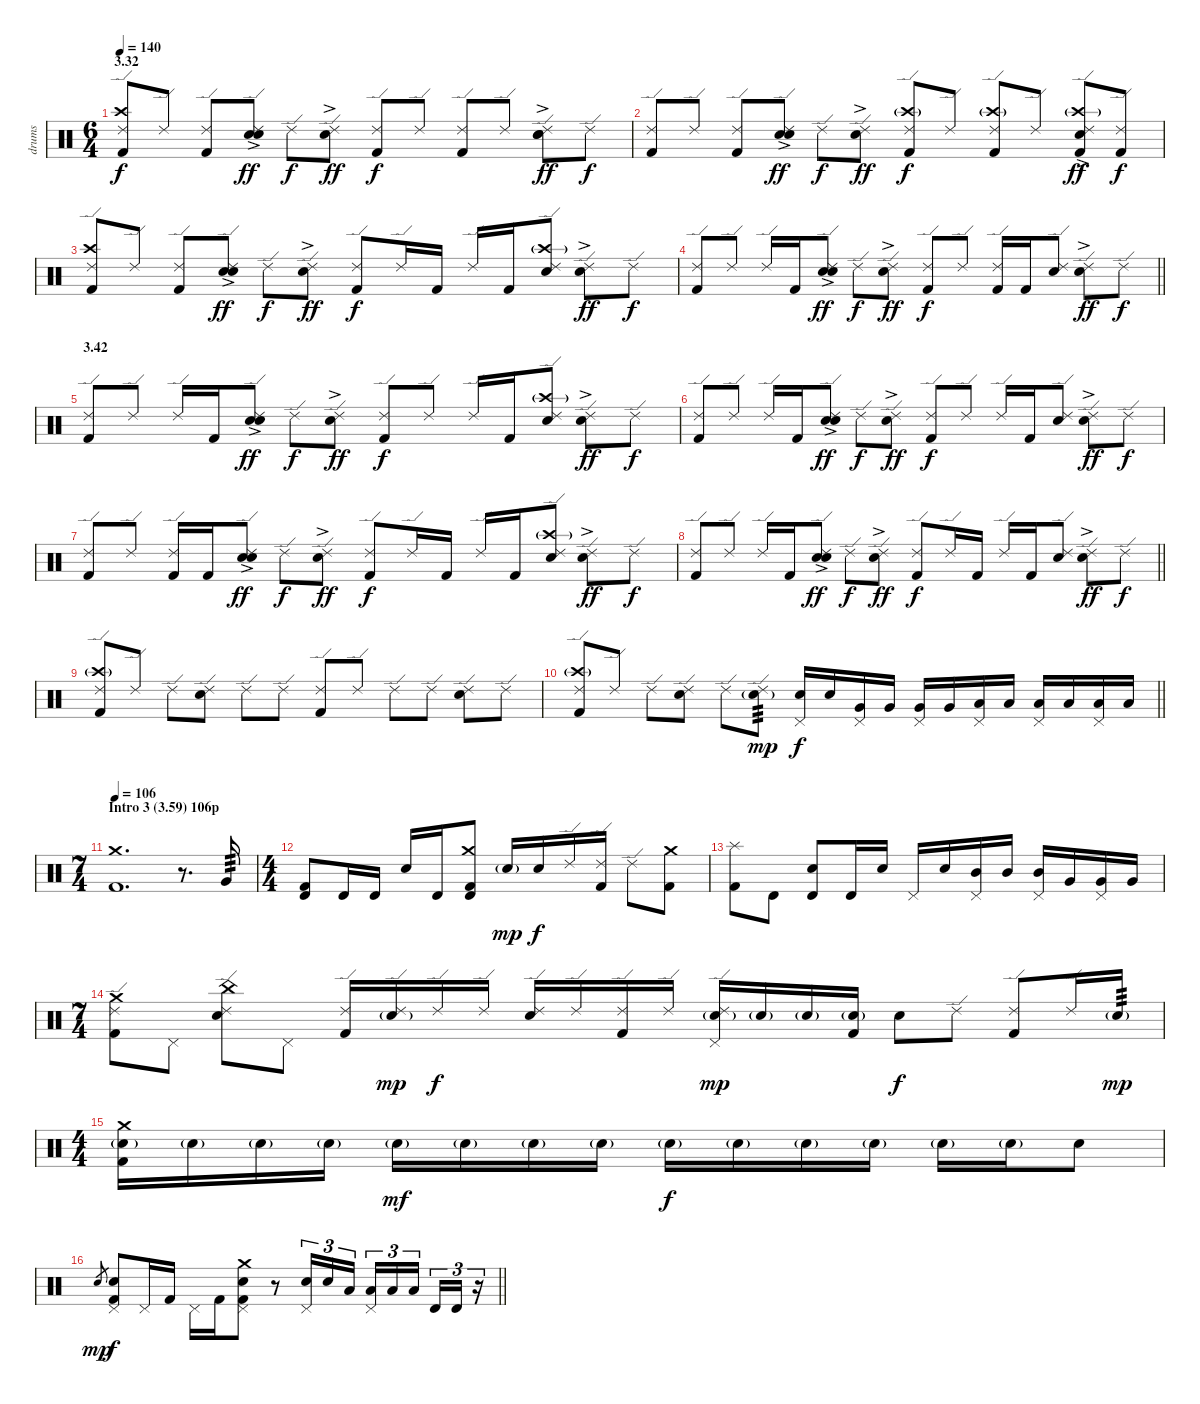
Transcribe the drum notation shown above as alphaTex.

\track ("drums" "drums") {instrument percussion}
\staff {score}
\articulation defaults
\ts (6 4)
\section ("" "3.32")
\tempo 140
\clef neutral
\ks c
("Ride (edge) 2" "Crash high (hit)" "Kick (hit) 2").8{dy f} "Ride (edge) 2".8 ("Ride (edge) 2" "Kick (hit) 2").8 ("Ride (edge) 2" "Hand Clap (hit)"{ac} "Electric Snare (hit)").8{dy ff} "Ride (edge) 2".8{dy f} ("Ride (edge) 2" "Hand Clap (hit)"{ac}).8{dy ff} ("Ride (edge) 2" "Kick (hit) 2").8{dy f} "Ride (edge) 2".8 ("Ride (edge) 2" "Kick (hit) 2").8 "Ride (edge) 2".8 ("Ride (edge) 2" "Hand Clap (hit)"{ac} "Electric Snare (hit)").8{dy ff} "Ride (edge) 2".8{dy f} |
("Ride (edge) 2" "Kick (hit) 2").8 "Ride (edge) 2".8 ("Ride (edge) 2" "Kick (hit) 2").8 ("Ride (edge) 2" "Hand Clap (hit)"{ac} "Electric Snare (hit)").8{dy ff} "Ride (edge) 2".8{dy f} ("Ride (edge) 2" "Hand Clap (hit)"{ac}).8{dy ff} ("Ride (edge) 2" "Crash high (hit)"{g} "Kick (hit) 2").8{dy f} "Ride (edge) 2".8 ("Ride (edge) 2" "Crash high (hit)"{g} "Kick (hit) 2").8 "Ride (edge) 2".8 ("Ride (edge) 2" "Hand Clap (hit)"{ac} "Crash high (hit)"{g} "Kick (hit) 2").8{dy ff} ("Ride (edge) 2" "Kick (hit) 2").8{dy f} |
("Ride (edge) 2" "Crash high (hit)" "Kick (hit) 2").8 "Ride (edge) 2".8 ("Ride (edge) 2" "Kick (hit) 2").8 ("Ride (edge) 2" "Hand Clap (hit)"{ac} "Electric Snare (hit)").8{dy ff} "Ride (edge) 2".8{dy f} ("Ride (edge) 2" "Hand Clap (hit)"{ac}).8{dy ff} ("Ride (edge) 2" "Kick (hit) 2").8{dy f} "Ride (edge) 2".16 "Kick (hit) 2".16 "Ride (edge) 2".16 "Kick (hit) 2".16 ("Ride (edge) 2" "Crash high (hit)"{g} "Electric Snare (hit)").8 ("Ride (edge) 2" "Hand Clap (hit)"{ac}).8{dy ff} "Ride (edge) 2".8{dy f} |
\barLineRight lightlight
("Ride (edge) 2" "Kick (hit) 2").8 "Ride (edge) 2".8 "Ride (edge) 2".16 "Kick (hit) 2".16 ("Ride (edge) 2" "Hand Clap (hit)"{ac} "Electric Snare (hit)").8{dy ff} "Ride (edge) 2".8{dy f} ("Ride (edge) 2" "Hand Clap (hit)"{ac}).8{dy ff} ("Ride (edge) 2" "Kick (hit) 2").8{dy f} "Ride (edge) 2".8 ("Ride (edge) 2" "Kick (hit) 2").16 "Kick (hit) 2".16 ("Ride (edge) 2" "Electric Snare (hit)").8 ("Ride (edge) 2" "Hand Clap (hit)"{ac}).8{dy ff} "Ride (edge) 2".8{dy f} |
\section ("" "3.42")
("Ride (edge) 2" "Kick (hit) 2").8 "Ride (edge) 2".8 "Ride (edge) 2".16 "Kick (hit) 2".16 ("Ride (edge) 2" "Hand Clap (hit)"{ac} "Electric Snare (hit)").8{dy ff} "Ride (edge) 2".8{dy f} ("Ride (edge) 2" "Hand Clap (hit)"{ac}).8{dy ff} ("Ride (edge) 2" "Kick (hit) 2").8{dy f} "Ride (edge) 2".8 "Ride (edge) 2".16 "Kick (hit) 2".16 ("Ride (edge) 2" "Crash high (hit)"{g} "Electric Snare (hit)").8 ("Ride (edge) 2" "Hand Clap (hit)"{ac}).8{dy ff} "Ride (edge) 2".8{dy f} |
("Ride (edge) 2" "Kick (hit) 2").8 "Ride (edge) 2".8 "Ride (edge) 2".16 "Kick (hit) 2".16 ("Ride (edge) 2" "Hand Clap (hit)"{ac} "Electric Snare (hit)").8{dy ff} "Ride (edge) 2".8{dy f} ("Ride (edge) 2" "Hand Clap (hit)"{ac}).8{dy ff} ("Ride (edge) 2" "Kick (hit) 2").8{dy f} "Ride (edge) 2".8 "Ride (edge) 2".16 "Kick (hit) 2".16 ("Ride (edge) 2" "Electric Snare (hit)").8 ("Ride (edge) 2" "Hand Clap (hit)"{ac}).8{dy ff} "Ride (edge) 2".8{dy f} |
("Ride (edge) 2" "Kick (hit) 2").8 "Ride (edge) 2".8 ("Ride (edge) 2" "Kick (hit) 2").16 "Kick (hit) 2".16 ("Ride (edge) 2" "Hand Clap (hit)"{ac} "Electric Snare (hit)").8{dy ff} "Ride (edge) 2".8{dy f} ("Ride (edge) 2" "Hand Clap (hit)"{ac}).8{dy ff} ("Ride (edge) 2" "Kick (hit) 2").8{dy f} "Ride (edge) 2".16 "Kick (hit) 2".16 "Ride (edge) 2".16 "Kick (hit) 2".16 ("Ride (edge) 2" "Crash high (hit)"{g} "Electric Snare (hit)").8 ("Ride (edge) 2" "Hand Clap (hit)"{ac}).8{dy ff} "Ride (edge) 2".8{dy f} |
\barLineRight lightlight
("Ride (edge) 2" "Kick (hit) 2").8 "Ride (edge) 2".8 "Ride (edge) 2".16 "Kick (hit) 2".16 ("Ride (edge) 2" "Hand Clap (hit)"{ac} "Electric Snare (hit)").8{dy ff} "Ride (edge) 2".8{dy f} ("Ride (edge) 2" "Hand Clap (hit)"{ac}).8{dy ff} ("Ride (edge) 2" "Kick (hit) 2").8{dy f} "Ride (edge) 2".16 "Kick (hit) 2".16 "Ride (edge) 2".16 "Kick (hit) 2".16 ("Ride (edge) 2" "Electric Snare (hit)").8 ("Ride (edge) 2" "Hand Clap (hit)"{ac}).8{dy ff} "Ride (edge) 2".8{dy f} |
("Ride (edge) 2" "Crash high (hit)"{g} "Kick (hit) 2").8 "Ride (edge) 2".8 "Ride (edge) 2".8 ("Ride (edge) 2" "Electric Snare (hit)").8 "Ride (edge) 2".8 "Ride (edge) 2".8 ("Ride (edge) 2" "Kick (hit) 2").8 "Ride (edge) 2".8 "Ride (edge) 2".8 "Ride (edge) 2".8 ("Ride (edge) 2" "Electric Snare (hit)").8 "Ride (edge) 2".8 |
\barLineRight lightlight
("Ride (edge) 2" "Crash high (hit)"{g} "Kick (hit) 2").8 "Ride (edge) 2".8 "Ride (edge) 2".8 ("Ride (edge) 2" "Electric Snare (hit)").8 "Ride (edge) 2".8 ("Ride (edge) 2" "Electric Snare (hit)"{g}).8{tp 3 dy mp} ("Pedal Hi-Hat (hit)" "Electric Snare (hit)").16{dy f} "Electric Snare (hit)".16 ("Pedal Hi-Hat (hit)" "Very Low Tom (hit)").16 "Very Low Tom (hit)".16 ("Pedal Hi-Hat (hit)" "Very Low Tom (hit)").16 "Very Low Tom (hit)".16 ("Pedal Hi-Hat (hit)" "Low Tom (hit)").16 "Low Tom (hit)".16 ("Pedal Hi-Hat (hit)" "Low Tom (hit)").16 "Low Tom (hit)".16 ("Pedal Hi-Hat (hit)" "Low Tom (hit)").16 "Low Tom (hit)".16 |
\ts (7 4)
\section ("" "Intro 3 (3.59) 106p")
\tempo 106
("Crash medium (hit)" "Kick (hit) 2").1{d} r.8{d} "Very Low Tom (hit)".16{tp 3} |
\ts (4 4)
("Timbale high (hit)" "Kick (hit) 2").8 "Timbale high (hit)".16 "Timbale high (hit)".16 "Electric Snare (hit)".16 "Timbale high (hit)".16 ("Timbale high (hit)" "Crash medium (hit)" "Kick (hit) 2").8 "Electric Snare (hit)"{g}.16{dy mp} "Electric Snare (hit)".16{dy f} "Ride (edge) 2".16 ("Ride (edge) 2" "Kick (hit) 2").16 "Ride (edge) 2".8 ("Crash medium (hit)" "Kick (hit) 2").8 |
("Splash (hit)" "Kick (hit) 2").8 "Timbale high (hit)".8 ("Timbale high (hit)" "Electric Snare (hit)").8 "Timbale high (hit)".16 "Electric Snare (hit)".16 "Pedal Hi-Hat (hit)".16 "Electric Snare (hit)".16 ("Pedal Hi-Hat (hit)" "Mid Tom (hit)").16 "Mid Tom (hit)".16 ("Pedal Hi-Hat (hit)" "Mid Tom (hit)").16 "Very Low Tom (hit)".16 ("Pedal Hi-Hat (hit)" "Very Low Tom (hit)").16 "Very Low Tom (hit)".16 |
\ts (7 4)
("Ride (edge) 2" "Crash medium (hit)" "Kick (hit) 2").8 "Pedal Hi-Hat (hit)".8 ("Ride (edge) 2" "China (hit)" "Electric Snare (hit)").8 "Pedal Hi-Hat (hit)".8 ("Ride (edge) 2" "Kick (hit) 2").16 ("Ride (edge) 2" "Electric Snare (hit)"{g}).16{dy mp} "Ride (edge) 2".16{dy f} "Ride (edge) 2".16 ("Ride (edge) 2" "Electric Snare (hit)").16 "Ride (edge) 2".16 ("Ride (edge) 2" "Kick (hit) 2").16 "Ride (edge) 2".16 ("Ride (edge) 2" "Pedal Hi-Hat (hit)" "Electric Snare (hit)"{g}).16{dy mp} "Electric Snare (hit)"{g}.16 "Electric Snare (hit)"{g}.16 ("Electric Snare (hit)"{g} "Kick (hit) 2").16 "Electric Snare (hit)".8{dy f} "Ride (edge) 2".8 ("Ride (edge) 2" "Kick (hit) 2").8 "Ride (edge) 2".16 "Electric Snare (hit)"{g}.16{tp 3 dy mp} |
\ts (4 4)
("Crash medium (hit)" "Electric Snare (hit)"{g} "Kick (hit) 2").16 "Electric Snare (hit)"{g}.16 "Electric Snare (hit)"{g}.16 "Electric Snare (hit)"{g}.16 "Electric Snare (hit)"{g}.16{dy mf} "Electric Snare (hit)"{g}.16 "Electric Snare (hit)"{g}.16 "Electric Snare (hit)"{g}.16 "Electric Snare (hit)"{g}.16{dy f} "Electric Snare (hit)"{g}.16 "Electric Snare (hit)"{g}.16 "Electric Snare (hit)"{g}.16 "Electric Snare (hit)"{g}.16 "Electric Snare (hit)"{g}.16 "Electric Snare (hit)".8 |
\barLineRight lightlight "Electric Snare (hit)".8{gr dy mp}
("Pedal Hi-Hat (hit)" "Electric Snare (hit)" "Kick (hit) 2").8{dy f} "Pedal Hi-Hat (hit)".16 "Kick (hit) 2".16 "Pedal Hi-Hat (hit)".16 "Kick (hit) 2".16 ("Pedal Hi-Hat (hit)" "Crash medium (hit)" "Electric Snare (hit)" "Kick (hit) 2").8 r.8 ("Pedal Hi-Hat (hit)" "Electric Snare (hit)").16{tu (3 2)} "Electric Snare (hit)".16{tu (3 2)} "Low Tom (hit)".16{tu (3 2)} ("Pedal Hi-Hat (hit)" "Low Tom (hit)").16{tu (3 2)} "Low Tom (hit)".16{tu (3 2)} "Low Tom (hit)".16{tu (3 2) beam splitsecondary} "Timbale high (hit)".16{tu (3 2)} "Timbale high (hit)".16{tu (3 2)} r.16{tu (3 2)}
